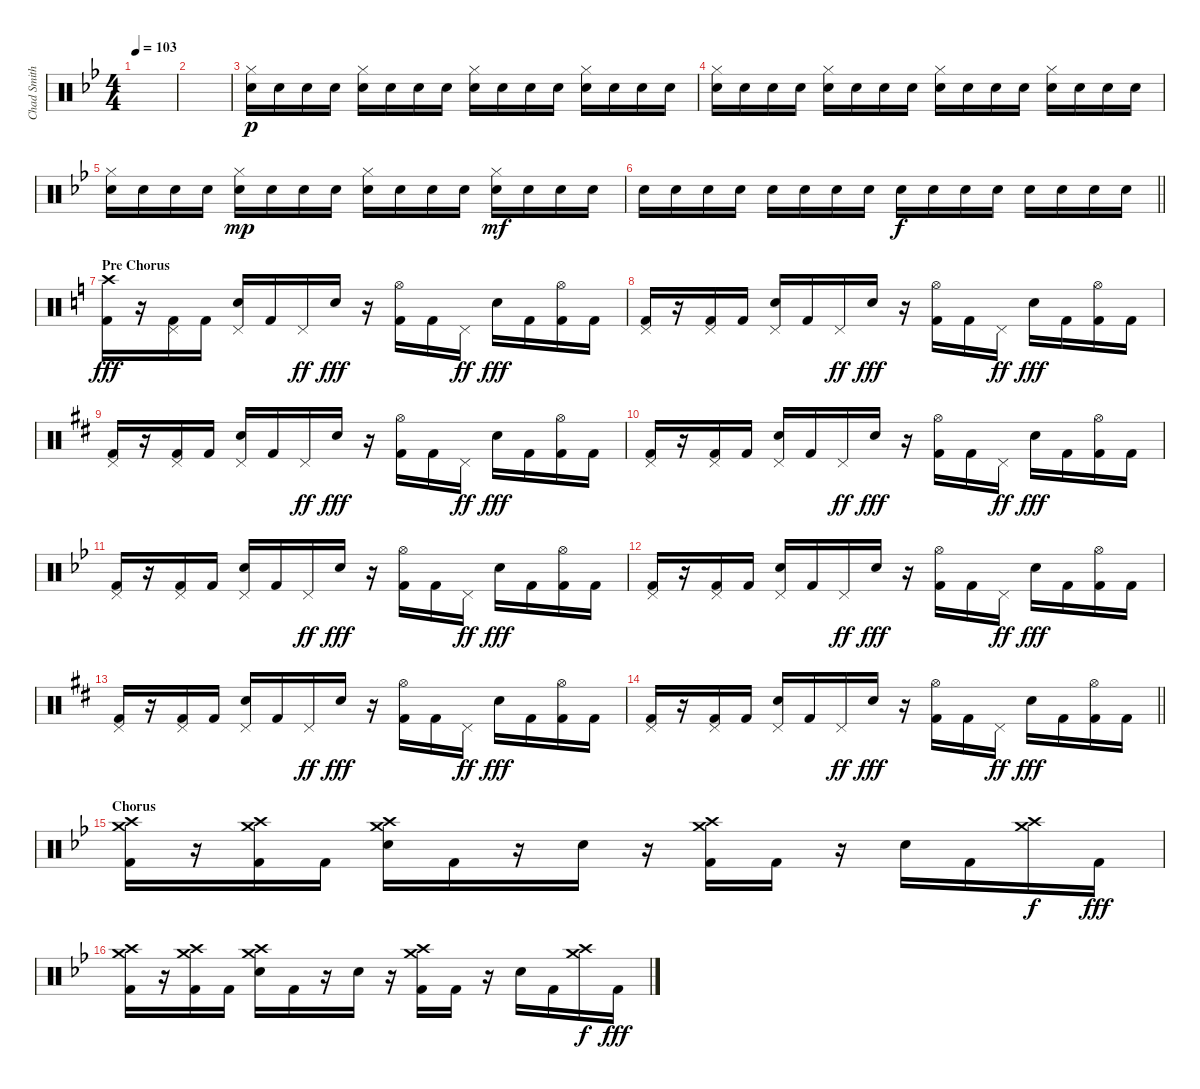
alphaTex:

\track ("Chad Smith (Drums)" "Chad Smith") {instrument percussion}
\staff {score}
\articulation defaults
\ts (4 4)
\tempo 103
\clef neutral
\ks bb
|
|
("Hi-Hat (closed)" "Snare (hit) 2").16{dy p} "Snare (hit) 2".16 "Snare (hit) 2".16 "Snare (hit) 2".16 ("Hi-Hat (closed)" "Snare (hit) 2").16 "Snare (hit) 2".16 "Snare (hit) 2".16 "Snare (hit) 2".16 ("Hi-Hat (closed)" "Snare (hit) 2").16 "Snare (hit) 2".16 "Snare (hit) 2".16 "Snare (hit) 2".16 ("Hi-Hat (closed)" "Snare (hit) 2").16 "Snare (hit) 2".16 "Snare (hit) 2".16 "Snare (hit) 2".16 |
("Hi-Hat (closed)" "Snare (hit) 2").16 "Snare (hit) 2".16 "Snare (hit) 2".16 "Snare (hit) 2".16 ("Hi-Hat (closed)" "Snare (hit) 2").16 "Snare (hit) 2".16 "Snare (hit) 2".16 "Snare (hit) 2".16 ("Hi-Hat (closed)" "Snare (hit) 2").16 "Snare (hit) 2".16 "Snare (hit) 2".16 "Snare (hit) 2".16 ("Hi-Hat (closed)" "Snare (hit) 2").16 "Snare (hit) 2".16 "Snare (hit) 2".16 "Snare (hit) 2".16 |
("Hi-Hat (closed)" "Snare (hit) 2").16 "Snare (hit) 2".16 "Snare (hit) 2".16 "Snare (hit) 2".16 ("Hi-Hat (closed)" "Snare (hit) 2").16{dy mp} "Snare (hit) 2".16 "Snare (hit) 2".16 "Snare (hit) 2".16 ("Hi-Hat (closed)" "Snare (hit) 2").16 "Snare (hit) 2".16 "Snare (hit) 2".16 "Snare (hit) 2".16 ("Hi-Hat (closed)" "Snare (hit) 2").16{dy mf} "Snare (hit) 2".16 "Snare (hit) 2".16 "Snare (hit) 2".16 |
\barLineRight lightlight "Snare (hit) 2".16 "Snare (hit) 2".16 "Snare (hit) 2".16 "Snare (hit) 2".16 "Snare (hit) 2".16 "Snare (hit) 2".16 "Snare (hit) 2".16 "Snare (hit) 2".16 "Snare (hit) 2".16{dy f} "Snare (hit) 2".16 "Snare (hit) 2".16 "Snare (hit) 2".16 "Snare (hit) 2".16 "Snare (hit) 2".16 "Snare (hit) 2".16 "Snare (hit) 2".16
|
\section ("" "Pre Chorus")
\ks c
("Crash high (hit)" "Kick (hit) 2").16{dy fff} r.16 ("Pedal Hi-Hat (hit)" "Kick (hit) 2").16 "Kick (hit) 2".16 ("Pedal Hi-Hat (hit)" "Snare (hit) 2").16 "Kick (hit) 2".16 "Pedal Hi-Hat (hit)".16{dy ff} "Snare (hit) 2".16{dy fff} r.16 ("Hi-Hat (open)" "Kick (hit) 2").16 "Kick (hit) 2".16 "Pedal Hi-Hat (hit)".16{dy ff} "Snare (hit) 2".16{dy fff} "Kick (hit) 2".16 ("Hi-Hat (open)" "Kick (hit) 2").16 "Kick (hit) 2".16 |
("Pedal Hi-Hat (hit)" "Kick (hit) 2").16 r.16 ("Pedal Hi-Hat (hit)" "Kick (hit) 2").16 "Kick (hit) 2".16 ("Pedal Hi-Hat (hit)" "Snare (hit) 2").16 "Kick (hit) 2".16 "Pedal Hi-Hat (hit)".16{dy ff} "Snare (hit) 2".16{dy fff} r.16 ("Hi-Hat (open)" "Kick (hit) 2").16 "Kick (hit) 2".16 "Pedal Hi-Hat (hit)".16{dy ff} "Snare (hit) 2".16{dy fff} "Kick (hit) 2".16 ("Hi-Hat (open)" "Kick (hit) 2").16 "Kick (hit) 2".16 |
\ks d
("Pedal Hi-Hat (hit)" "Kick (hit) 2").16 r.16 ("Pedal Hi-Hat (hit)" "Kick (hit) 2").16 "Kick (hit) 2".16 ("Pedal Hi-Hat (hit)" "Snare (hit) 2").16 "Kick (hit) 2".16 "Pedal Hi-Hat (hit)".16{dy ff} "Snare (hit) 2".16{dy fff} r.16 ("Hi-Hat (open)" "Kick (hit) 2").16 "Kick (hit) 2".16 "Pedal Hi-Hat (hit)".16{dy ff} "Snare (hit) 2".16{dy fff} "Kick (hit) 2".16 ("Hi-Hat (open)" "Kick (hit) 2").16 "Kick (hit) 2".16 |
("Pedal Hi-Hat (hit)" "Kick (hit) 2").16 r.16 ("Pedal Hi-Hat (hit)" "Kick (hit) 2").16 "Kick (hit) 2".16 ("Pedal Hi-Hat (hit)" "Snare (hit) 2").16 "Kick (hit) 2".16 "Pedal Hi-Hat (hit)".16{dy ff} "Snare (hit) 2".16{dy fff} r.16 ("Hi-Hat (open)" "Kick (hit) 2").16 "Kick (hit) 2".16 "Pedal Hi-Hat (hit)".16{dy ff} "Snare (hit) 2".16{dy fff} "Kick (hit) 2".16 ("Hi-Hat (open)" "Kick (hit) 2").16 "Kick (hit) 2".16 |
\ks bb
("Pedal Hi-Hat (hit)" "Kick (hit) 2").16 r.16 ("Pedal Hi-Hat (hit)" "Kick (hit) 2").16 "Kick (hit) 2".16 ("Pedal Hi-Hat (hit)" "Snare (hit) 2").16 "Kick (hit) 2".16 "Pedal Hi-Hat (hit)".16{dy ff} "Snare (hit) 2".16{dy fff} r.16 ("Hi-Hat (open)" "Kick (hit) 2").16 "Kick (hit) 2".16 "Pedal Hi-Hat (hit)".16{dy ff} "Snare (hit) 2".16{dy fff} "Kick (hit) 2".16 ("Hi-Hat (open)" "Kick (hit) 2").16 "Kick (hit) 2".16 |
("Pedal Hi-Hat (hit)" "Kick (hit) 2").16 r.16 ("Pedal Hi-Hat (hit)" "Kick (hit) 2").16 "Kick (hit) 2".16 ("Pedal Hi-Hat (hit)" "Snare (hit) 2").16 "Kick (hit) 2".16 "Pedal Hi-Hat (hit)".16{dy ff} "Snare (hit) 2".16{dy fff} r.16 ("Hi-Hat (open)" "Kick (hit) 2").16 "Kick (hit) 2".16 "Pedal Hi-Hat (hit)".16{dy ff} "Snare (hit) 2".16{dy fff} "Kick (hit) 2".16 ("Hi-Hat (open)" "Kick (hit) 2").16 "Kick (hit) 2".16 |
\ks d
("Pedal Hi-Hat (hit)" "Kick (hit) 2").16 r.16 ("Pedal Hi-Hat (hit)" "Kick (hit) 2").16 "Kick (hit) 2".16 ("Pedal Hi-Hat (hit)" "Snare (hit) 2").16 "Kick (hit) 2".16 "Pedal Hi-Hat (hit)".16{dy ff} "Snare (hit) 2".16{dy fff} r.16 ("Hi-Hat (open)" "Kick (hit) 2").16 "Kick (hit) 2".16 "Pedal Hi-Hat (hit)".16{dy ff} "Snare (hit) 2".16{dy fff} "Kick (hit) 2".16 ("Hi-Hat (open)" "Kick (hit) 2").16 "Kick (hit) 2".16 |
\barLineRight lightlight
("Pedal Hi-Hat (hit)" "Kick (hit) 2").16 r.16 ("Pedal Hi-Hat (hit)" "Kick (hit) 2").16 "Kick (hit) 2".16 ("Pedal Hi-Hat (hit)" "Snare (hit) 2").16 "Kick (hit) 2".16 "Pedal Hi-Hat (hit)".16{dy ff} "Snare (hit) 2".16{dy fff} r.16 ("Hi-Hat (open)" "Kick (hit) 2").16 "Kick (hit) 2".16 "Pedal Hi-Hat (hit)".16{dy ff} "Snare (hit) 2".16{dy fff} "Kick (hit) 2".16 ("Hi-Hat (open)" "Kick (hit) 2").16 "Kick (hit) 2".16 |
\section ("" "Chorus")
\ks bb
("Crash medium (hit)" "Crash high (hit)" "Kick (hit) 2").16{volume 11} r.16 ("Crash medium (hit)" "Crash high (hit)" "Kick (hit) 2").16 "Kick (hit) 2".16 ("Crash medium (hit)" "Crash high (hit)" "Snare (hit) 2").16 "Kick (hit) 2".16 r.16 "Snare (hit) 2".16 r.16 ("Crash medium (hit)" "Crash high (hit)" "Kick (hit) 2").16 "Kick (hit) 2".16 r.16 "Snare (hit) 2".16 "Kick (hit) 2".16 ("Crash medium (hit)" "Crash high (hit)").16{dy f} "Kick (hit) 2".16{dy fff} |
("Crash medium (hit)" "Crash high (hit)" "Kick (hit) 2").16 r.16 ("Crash medium (hit)" "Crash high (hit)" "Kick (hit) 2").16 "Kick (hit) 2".16 ("Crash medium (hit)" "Crash high (hit)" "Snare (hit) 2").16 "Kick (hit) 2".16 r.16 "Snare (hit) 2".16 r.16 ("Crash medium (hit)" "Crash high (hit)" "Kick (hit) 2").16 "Kick (hit) 2".16 r.16 "Snare (hit) 2".16 "Kick (hit) 2".16 ("Crash medium (hit)" "Crash high (hit)").16{dy f} "Kick (hit) 2".16{dy fff}
